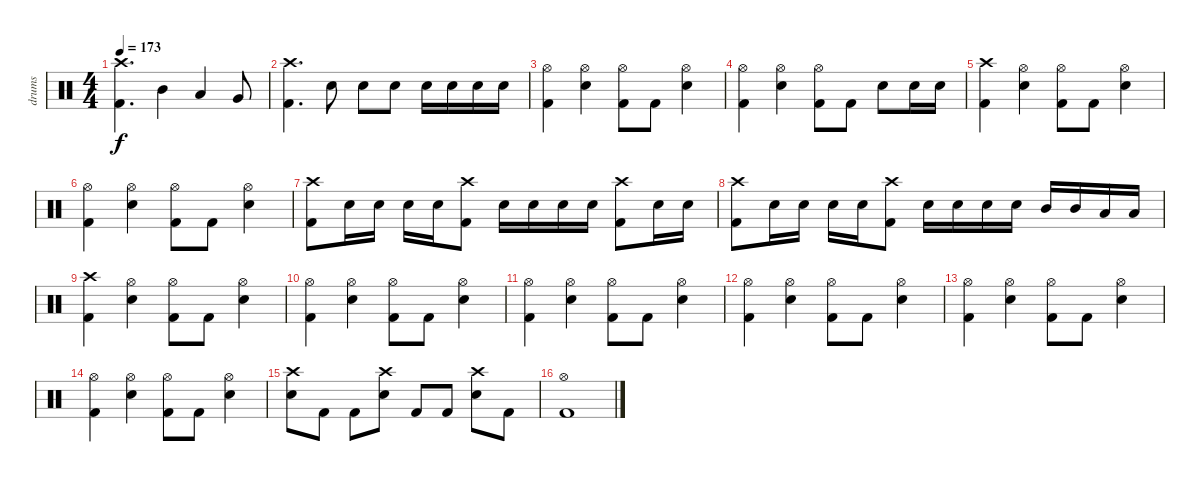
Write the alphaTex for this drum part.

\track ("drums" "drums") {instrument percussion}
\staff {score}
\articulation defaults
\ts (4 4)
\tempo 173
\clef neutral
\ks c
("Crash high (hit)" "Kick (hit) 2").4{d dy f} "Mid Tom (hit)".4 "Low Tom (hit)".4 "Very Low Tom (hit)".8 |
("Crash high (hit)" "Kick (hit) 2").4{d} "Electric Snare (hit)".8 "Electric Snare (hit)".8 "Electric Snare (hit)".8 "Electric Snare (hit)".16 "Electric Snare (hit)".16 "Electric Snare (hit)".16 "Electric Snare (hit)".16 |
("Hi-Hat (open)" "Kick (hit) 2").4 ("Hi-Hat (open)" "Electric Snare (hit)").4 ("Hi-Hat (open)" "Kick (hit) 2").8 "Kick (hit) 2".8 ("Hi-Hat (open)" "Electric Snare (hit)").4 |
("Hi-Hat (open)" "Kick (hit) 2").4 ("Hi-Hat (open)" "Electric Snare (hit)").4 ("Hi-Hat (open)" "Kick (hit) 2").8 "Kick (hit) 2".8 "Electric Snare (hit)".8 "Electric Snare (hit)".16 "Electric Snare (hit)".16 |
("Crash high (hit)" "Kick (hit) 2").4 ("Hi-Hat (open)" "Electric Snare (hit)").4 ("Hi-Hat (open)" "Kick (hit) 2").8 "Kick (hit) 2".8 ("Hi-Hat (open)" "Electric Snare (hit)").4 |
("Hi-Hat (open)" "Kick (hit) 2").4 ("Hi-Hat (open)" "Electric Snare (hit)").4 ("Hi-Hat (open)" "Kick (hit) 2").8 "Kick (hit) 2".8 ("Hi-Hat (open)" "Electric Snare (hit)").4 |
("Crash high (hit)" "Kick (hit) 2").8 "Electric Snare (hit)".16 "Electric Snare (hit)".16 "Electric Snare (hit)".16 "Electric Snare (hit)".16 ("Crash high (hit)" "Kick (hit) 2").8 "Electric Snare (hit)".16 "Electric Snare (hit)".16 "Electric Snare (hit)".16 "Electric Snare (hit)".16 ("Crash high (hit)" "Kick (hit) 2").8 "Electric Snare (hit)".16 "Electric Snare (hit)".16 |
("Crash high (hit)" "Kick (hit) 2").8 "Electric Snare (hit)".16 "Electric Snare (hit)".16 "Electric Snare (hit)".16 "Electric Snare (hit)".16 ("Crash high (hit)" "Kick (hit) 2").8 "Electric Snare (hit)".16 "Electric Snare (hit)".16 "Electric Snare (hit)".16 "Electric Snare (hit)".16 "Mid Tom (hit)".16 "Mid Tom (hit)".16 "Low Tom (hit)".16 "Low Tom (hit)".16 |
("Crash high (hit)" "Kick (hit) 2").4 ("Hi-Hat (open)" "Electric Snare (hit)").4 ("Hi-Hat (open)" "Kick (hit) 2").8 "Kick (hit) 2".8 ("Hi-Hat (open)" "Electric Snare (hit)").4 |
("Hi-Hat (open)" "Kick (hit) 2").4 ("Hi-Hat (open)" "Electric Snare (hit)").4 ("Hi-Hat (open)" "Kick (hit) 2").8 "Kick (hit) 2".8 ("Hi-Hat (open)" "Electric Snare (hit)").4 |
("Hi-Hat (open)" "Kick (hit) 2").4 ("Hi-Hat (open)" "Electric Snare (hit)").4 ("Hi-Hat (open)" "Kick (hit) 2").8 "Kick (hit) 2".8 ("Hi-Hat (open)" "Electric Snare (hit)").4 |
("Hi-Hat (open)" "Kick (hit) 2").4 ("Hi-Hat (open)" "Electric Snare (hit)").4 ("Hi-Hat (open)" "Kick (hit) 2").8 "Kick (hit) 2".8 ("Hi-Hat (open)" "Electric Snare (hit)").4 |
("Hi-Hat (open)" "Kick (hit) 2").4 ("Hi-Hat (open)" "Electric Snare (hit)").4 ("Hi-Hat (open)" "Kick (hit) 2").8 "Kick (hit) 2".8 ("Hi-Hat (open)" "Electric Snare (hit)").4 |
("Hi-Hat (open)" "Kick (hit) 2").4 ("Hi-Hat (open)" "Electric Snare (hit)").4 ("Hi-Hat (open)" "Kick (hit) 2").8 "Kick (hit) 2".8 ("Hi-Hat (open)" "Electric Snare (hit)").4 |
("Crash high (hit)" "Electric Snare (hit)").8 "Kick (hit) 2".8 "Kick (hit) 2".8 ("Crash high (hit)" "Electric Snare (hit)").8 "Kick (hit) 2".8 "Kick (hit) 2".8 ("Crash high (hit)" "Electric Snare (hit)").8 "Kick (hit) 2".8 |
("Hi-Hat (open)" "Kick (hit) 2").1
